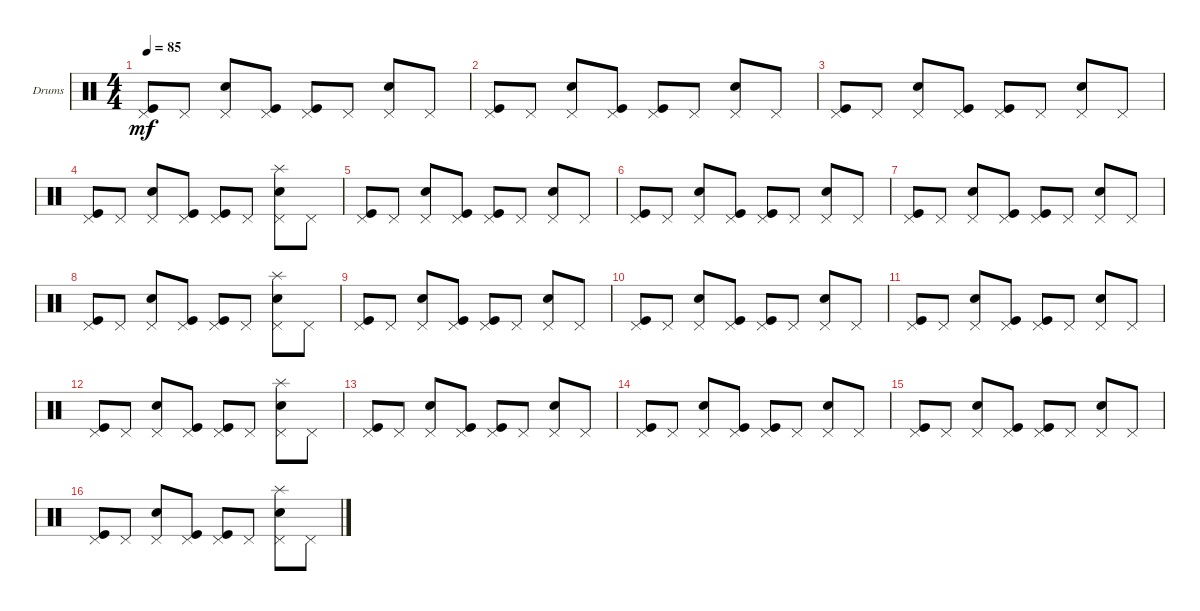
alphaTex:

\defaultSystemsLayout 4
\bracketExtendMode groupsimilarinstruments
\firstSystemTrackNameOrientation horizontal
\otherSystemsTrackNameOrientation horizontal
\track ("Drums" "Drums") {instrument percussion}
\staff {score}
\articulation defaults
\ts (4 4)
\tempo 85
\clef neutral
\ks c
("Kick (hit)" "Pedal Hi-Hat (hit)").8{dy mf} "Pedal Hi-Hat (hit)".8 ("Snare (hit) 2" "Pedal Hi-Hat (hit)").8 ("Pedal Hi-Hat (hit)" "Kick (hit)").8 ("Kick (hit)" "Pedal Hi-Hat (hit)").8 "Pedal Hi-Hat (hit)".8 ("Snare (hit) 2" "Pedal Hi-Hat (hit)").8 "Pedal Hi-Hat (hit)".8 |
("Kick (hit)" "Pedal Hi-Hat (hit)").8 "Pedal Hi-Hat (hit)".8 ("Snare (hit) 2" "Pedal Hi-Hat (hit)").8 ("Pedal Hi-Hat (hit)" "Kick (hit)").8 ("Kick (hit)" "Pedal Hi-Hat (hit)").8 "Pedal Hi-Hat (hit)".8 ("Snare (hit) 2" "Pedal Hi-Hat (hit)").8 "Pedal Hi-Hat (hit)".8 |
("Kick (hit)" "Pedal Hi-Hat (hit)").8 "Pedal Hi-Hat (hit)".8 ("Snare (hit) 2" "Pedal Hi-Hat (hit)").8 ("Pedal Hi-Hat (hit)" "Kick (hit)").8 ("Kick (hit)" "Pedal Hi-Hat (hit)").8 "Pedal Hi-Hat (hit)".8 ("Snare (hit) 2" "Pedal Hi-Hat (hit)").8 "Pedal Hi-Hat (hit)".8 |
("Kick (hit)" "Pedal Hi-Hat (hit)").8 "Pedal Hi-Hat (hit)".8 ("Snare (hit) 2" "Pedal Hi-Hat (hit)").8 ("Pedal Hi-Hat (hit)" "Kick (hit)").8 ("Kick (hit)" "Pedal Hi-Hat (hit)").8 "Pedal Hi-Hat (hit)".8 ("Snare (hit) 2" "Pedal Hi-Hat (hit)" "Splash (hit)").8 "Pedal Hi-Hat (hit)".8 |
("Kick (hit)" "Pedal Hi-Hat (hit)").8 "Pedal Hi-Hat (hit)".8 ("Snare (hit) 2" "Pedal Hi-Hat (hit)").8 ("Pedal Hi-Hat (hit)" "Kick (hit)").8 ("Kick (hit)" "Pedal Hi-Hat (hit)").8 "Pedal Hi-Hat (hit)".8 ("Snare (hit) 2" "Pedal Hi-Hat (hit)").8 "Pedal Hi-Hat (hit)".8 |
("Kick (hit)" "Pedal Hi-Hat (hit)").8 "Pedal Hi-Hat (hit)".8 ("Snare (hit) 2" "Pedal Hi-Hat (hit)").8 ("Pedal Hi-Hat (hit)" "Kick (hit)").8 ("Kick (hit)" "Pedal Hi-Hat (hit)").8 "Pedal Hi-Hat (hit)".8 ("Snare (hit) 2" "Pedal Hi-Hat (hit)").8 "Pedal Hi-Hat (hit)".8 |
("Kick (hit)" "Pedal Hi-Hat (hit)").8 "Pedal Hi-Hat (hit)".8 ("Snare (hit) 2" "Pedal Hi-Hat (hit)").8 ("Pedal Hi-Hat (hit)" "Kick (hit)").8 ("Kick (hit)" "Pedal Hi-Hat (hit)").8 "Pedal Hi-Hat (hit)".8 ("Snare (hit) 2" "Pedal Hi-Hat (hit)").8 "Pedal Hi-Hat (hit)".8 |
("Kick (hit)" "Pedal Hi-Hat (hit)").8 "Pedal Hi-Hat (hit)".8 ("Snare (hit) 2" "Pedal Hi-Hat (hit)").8 ("Pedal Hi-Hat (hit)" "Kick (hit)").8 ("Kick (hit)" "Pedal Hi-Hat (hit)").8 "Pedal Hi-Hat (hit)".8 ("Snare (hit) 2" "Pedal Hi-Hat (hit)" "Splash (hit)").8 "Pedal Hi-Hat (hit)".8 |
("Kick (hit)" "Pedal Hi-Hat (hit)").8 "Pedal Hi-Hat (hit)".8 ("Snare (hit) 2" "Pedal Hi-Hat (hit)").8 ("Pedal Hi-Hat (hit)" "Kick (hit)").8 ("Kick (hit)" "Pedal Hi-Hat (hit)").8 "Pedal Hi-Hat (hit)".8 ("Snare (hit) 2" "Pedal Hi-Hat (hit)").8 "Pedal Hi-Hat (hit)".8 |
("Kick (hit)" "Pedal Hi-Hat (hit)").8 "Pedal Hi-Hat (hit)".8 ("Snare (hit) 2" "Pedal Hi-Hat (hit)").8 ("Pedal Hi-Hat (hit)" "Kick (hit)").8 ("Kick (hit)" "Pedal Hi-Hat (hit)").8 "Pedal Hi-Hat (hit)".8 ("Snare (hit) 2" "Pedal Hi-Hat (hit)").8 "Pedal Hi-Hat (hit)".8 |
("Kick (hit)" "Pedal Hi-Hat (hit)").8 "Pedal Hi-Hat (hit)".8 ("Snare (hit) 2" "Pedal Hi-Hat (hit)").8 ("Pedal Hi-Hat (hit)" "Kick (hit)").8 ("Kick (hit)" "Pedal Hi-Hat (hit)").8 "Pedal Hi-Hat (hit)".8 ("Snare (hit) 2" "Pedal Hi-Hat (hit)").8 "Pedal Hi-Hat (hit)".8 |
("Kick (hit)" "Pedal Hi-Hat (hit)").8 "Pedal Hi-Hat (hit)".8 ("Snare (hit) 2" "Pedal Hi-Hat (hit)").8 ("Pedal Hi-Hat (hit)" "Kick (hit)").8 ("Kick (hit)" "Pedal Hi-Hat (hit)").8 "Pedal Hi-Hat (hit)".8 ("Snare (hit) 2" "Pedal Hi-Hat (hit)" "Splash (hit)").8 "Pedal Hi-Hat (hit)".8 |
("Kick (hit)" "Pedal Hi-Hat (hit)").8 "Pedal Hi-Hat (hit)".8 ("Snare (hit) 2" "Pedal Hi-Hat (hit)").8 ("Pedal Hi-Hat (hit)" "Kick (hit)").8 ("Kick (hit)" "Pedal Hi-Hat (hit)").8 "Pedal Hi-Hat (hit)".8 ("Snare (hit) 2" "Pedal Hi-Hat (hit)").8 "Pedal Hi-Hat (hit)".8 |
("Kick (hit)" "Pedal Hi-Hat (hit)").8 "Pedal Hi-Hat (hit)".8 ("Snare (hit) 2" "Pedal Hi-Hat (hit)").8 ("Pedal Hi-Hat (hit)" "Kick (hit)").8 ("Kick (hit)" "Pedal Hi-Hat (hit)").8 "Pedal Hi-Hat (hit)".8 ("Snare (hit) 2" "Pedal Hi-Hat (hit)").8 "Pedal Hi-Hat (hit)".8 |
("Kick (hit)" "Pedal Hi-Hat (hit)").8 "Pedal Hi-Hat (hit)".8 ("Snare (hit) 2" "Pedal Hi-Hat (hit)").8 ("Pedal Hi-Hat (hit)" "Kick (hit)").8 ("Kick (hit)" "Pedal Hi-Hat (hit)").8 "Pedal Hi-Hat (hit)".8 ("Snare (hit) 2" "Pedal Hi-Hat (hit)").8 "Pedal Hi-Hat (hit)".8 |
("Kick (hit)" "Pedal Hi-Hat (hit)").8 "Pedal Hi-Hat (hit)".8 ("Snare (hit) 2" "Pedal Hi-Hat (hit)").8 ("Pedal Hi-Hat (hit)" "Kick (hit)").8 ("Kick (hit)" "Pedal Hi-Hat (hit)").8 "Pedal Hi-Hat (hit)".8 ("Snare (hit) 2" "Pedal Hi-Hat (hit)" "Splash (hit)").8 "Pedal Hi-Hat (hit)".8
